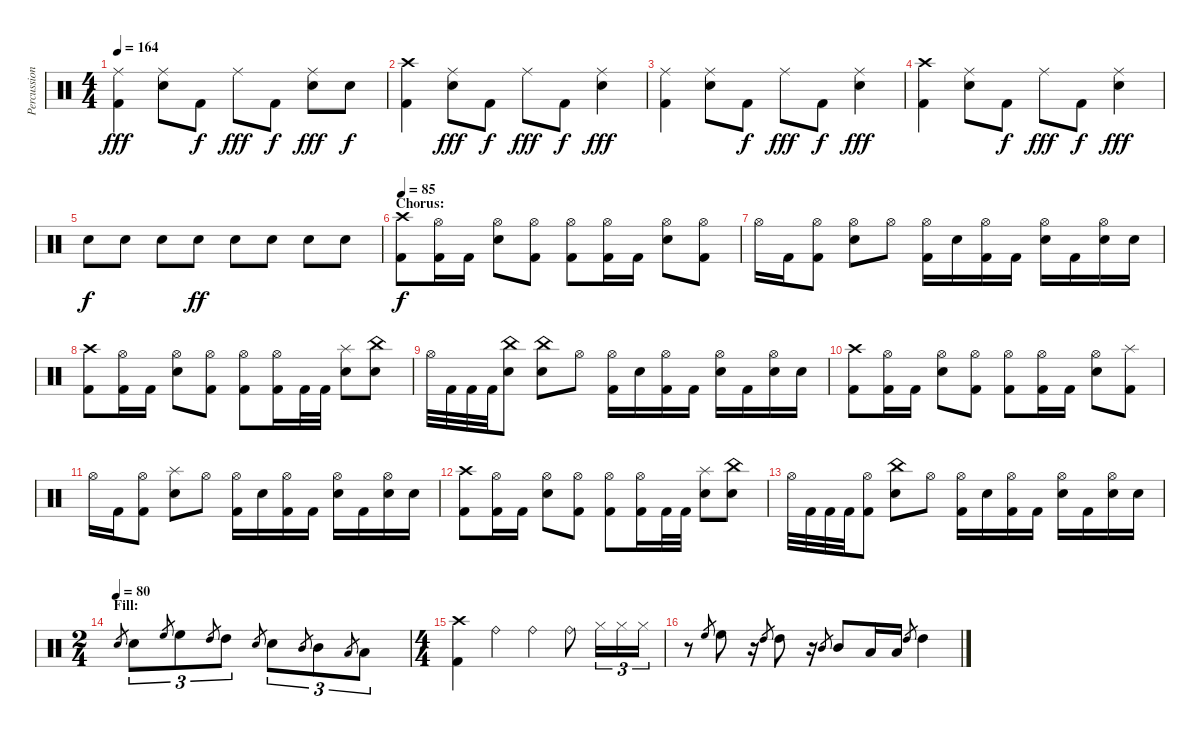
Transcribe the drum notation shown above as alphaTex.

\track ("Percussion" "Percussion") {instrument percussion}
\staff {score}
\articulation defaults
\ts (4 4)
\tempo 164
\clef neutral
\ks c
("Ride (middle)" "Kick (hit) 2").4{dy fff} ("Ride (middle)" "Electric Snare (hit)").8 "Kick (hit) 2".8{dy f} "Ride (middle)".8{dy fff} "Kick (hit) 2".8{dy f} ("Ride (middle)" "Electric Snare (hit)").8{dy fff} "Electric Snare (hit)".8{dy f} |
("Crash high (hit)" "Kick (hit) 2").4 ("Ride (middle)" "Electric Snare (hit)").8{dy fff} "Kick (hit) 2".8{dy f} "Ride (middle)".8{dy fff} "Kick (hit) 2".8{dy f} ("Ride (middle)" "Electric Snare (hit)").4{dy fff} |
("Ride (middle)" "Kick (hit) 2").4 ("Ride (middle)" "Electric Snare (hit)").8 "Kick (hit) 2".8{dy f} "Ride (middle)".8{dy fff} "Kick (hit) 2".8{dy f} ("Ride (middle)" "Electric Snare (hit)").4{dy fff} |
("Crash high (hit)" "Kick (hit) 2").4 ("Ride (middle)" "Electric Snare (hit)").8 "Kick (hit) 2".8{dy f} "Ride (middle)".8{dy fff} "Kick (hit) 2".8{dy f} ("Ride (middle)" "Electric Snare (hit)").4{dy fff} |
"Electric Snare (hit)".8{dy f} "Electric Snare (hit)".8 "Electric Snare (hit)".8 "Electric Snare (hit)".8{dy ff} "Electric Snare (hit)".8 "Electric Snare (hit)".8 "Electric Snare (hit)".8 "Electric Snare (hit)".8 |
\section ("" "Chorus:")
\tempo 85
("Crash high (hit)" "Kick (hit) 2").8{dy f} ("Hi-Hat (open)" "Kick (hit) 2").16 "Kick (hit) 2".16 ("Hi-Hat (open)" "Electric Snare (hit)").8 ("Hi-Hat (open)" "Kick (hit) 2").8 ("Hi-Hat (open)" "Kick (hit) 2").8 ("Hi-Hat (open)" "Kick (hit) 2").16 "Kick (hit) 2".16 ("Hi-Hat (open)" "Electric Snare (hit)").8 ("Hi-Hat (open)" "Kick (hit) 2").8 |
"Hi-Hat (open)".16 "Kick (hit) 2".16 ("Hi-Hat (open)" "Kick (hit) 2").8 ("Hi-Hat (open)" "Electric Snare (hit)").8 "Hi-Hat (open)".8 ("Hi-Hat (open)" "Kick (hit) 2").16 "Electric Snare (hit)".16 ("Hi-Hat (open)" "Kick (hit) 2").16 "Kick (hit) 2".16 ("Hi-Hat (open)" "Electric Snare (hit)").16 "Kick (hit) 2".16 ("Hi-Hat (open)" "Electric Snare (hit)").16 "Electric Snare (hit)".16 |
("Crash high (hit)" "Kick (hit) 2").8 ("Hi-Hat (open)" "Kick (hit) 2").16 "Kick (hit) 2".16 ("Hi-Hat (open)" "Electric Snare (hit)").8 ("Hi-Hat (open)" "Kick (hit) 2").8 ("Hi-Hat (open)" "Kick (hit) 2").8 ("Hi-Hat (open)" "Kick (hit) 2").16 "Kick (hit) 2".32 "Kick (hit) 2".32 ("Splash (hit)" "Electric Snare (hit)").8 ("China (hit)" "Electric Snare (hit)").8 |
"Hi-Hat (open)".32 "Kick (hit) 2".32 "Kick (hit) 2".32 "Kick (hit) 2".32 ("China (hit)" "Electric Snare (hit)").8 ("China (hit)" "Electric Snare (hit)").8 "Hi-Hat (open)".8 ("Hi-Hat (open)" "Kick (hit) 2").16 "Electric Snare (hit)".16 ("Hi-Hat (open)" "Kick (hit) 2").16 "Kick (hit) 2".16 ("Hi-Hat (open)" "Electric Snare (hit)").16 "Kick (hit) 2".16 ("Hi-Hat (open)" "Electric Snare (hit)").16 "Electric Snare (hit)".16 |
("Crash high (hit)" "Kick (hit) 2").8 ("Hi-Hat (open)" "Kick (hit) 2").16 "Kick (hit) 2".16 ("Hi-Hat (open)" "Electric Snare (hit)").8 ("Hi-Hat (open)" "Kick (hit) 2").8 ("Hi-Hat (open)" "Kick (hit) 2").8 ("Hi-Hat (open)" "Kick (hit) 2").16 "Kick (hit) 2".16 ("Hi-Hat (open)" "Electric Snare (hit)").8 ("Splash (hit)" "Kick (hit) 2").8 |
"Hi-Hat (open)".16 "Kick (hit) 2".16 ("Hi-Hat (open)" "Kick (hit) 2").8 ("Splash (hit)" "Electric Snare (hit)").8 "Hi-Hat (open)".8 ("Hi-Hat (open)" "Kick (hit) 2").16 "Electric Snare (hit)".16 ("Hi-Hat (open)" "Kick (hit) 2").16 "Kick (hit) 2".16 ("Hi-Hat (open)" "Electric Snare (hit)").16 "Kick (hit) 2".16 ("Hi-Hat (open)" "Electric Snare (hit)").16 "Electric Snare (hit)".16 |
("Crash high (hit)" "Kick (hit) 2").8 ("Hi-Hat (open)" "Kick (hit) 2").16 "Kick (hit) 2".16 ("Hi-Hat (open)" "Electric Snare (hit)").8 ("Hi-Hat (open)" "Kick (hit) 2").8 ("Hi-Hat (open)" "Kick (hit) 2").8 ("Hi-Hat (open)" "Kick (hit) 2").16 "Kick (hit) 2".32 "Kick (hit) 2".32 ("Splash (hit)" "Electric Snare (hit)").8 ("China (hit)" "Electric Snare (hit)").8 |
"Hi-Hat (open)".32 "Kick (hit) 2".32 "Kick (hit) 2".32 "Kick (hit) 2".32 ("Hi-Hat (open)" "Kick (hit) 2").8 ("China (hit)" "Electric Snare (hit)").8 "Hi-Hat (open)".8 ("Hi-Hat (open)" "Kick (hit) 2").16 "Electric Snare (hit)".16 ("Hi-Hat (open)" "Kick (hit) 2").16 "Kick (hit) 2".16 ("Hi-Hat (open)" "Electric Snare (hit)").16 "Kick (hit) 2".16 ("Hi-Hat (open)" "Electric Snare (hit)").16 "Electric Snare (hit)".16 |
\ts (2 4)
\section ("" "Fill:")
\tempo (80)
"Electric Snare (hit)".8{gr} "Electric Snare (hit)".8{tu (3 2)} "High Floor Tom (hit)".8{gr} "High Floor Tom (hit)".8{tu (3 2)} "High Tom (hit)".8{gr} "High Tom (hit)".8{tu (3 2)} "Electric Snare (hit)".8{gr} "Electric Snare (hit)".8{tu (3 2)} "Mid Tom (hit)".8{gr} "Mid Tom (hit)".8{tu (3 2)} "Low Tom (hit)".8{gr} "Low Tom (hit)".8{tu (3 2)} |
\ts (4 4)
("Crash high (hit)" "Kick (hit) 2").4 "Ride (bell)".4 "Ride (bell)".4 "Ride (bell)".8 "Hi-Hat (closed)".16{tu (3 2)} "Hi-Hat (closed)".16{tu (3 2)} "Hi-Hat (closed)".16{tu (3 2)} |
r.8 "High Floor Tom (hit)".8{gr} "High Floor Tom (hit)".8 r.16 "High Tom (hit)".8{gr} "High Tom (hit)".8 r.16 "Mid Tom (hit)".8{gr} "Mid Tom (hit)".8 "Low Tom (hit)".16 "Low Tom (hit)".16 "High Tom (hit)".8{gr} "High Tom (hit)".4
